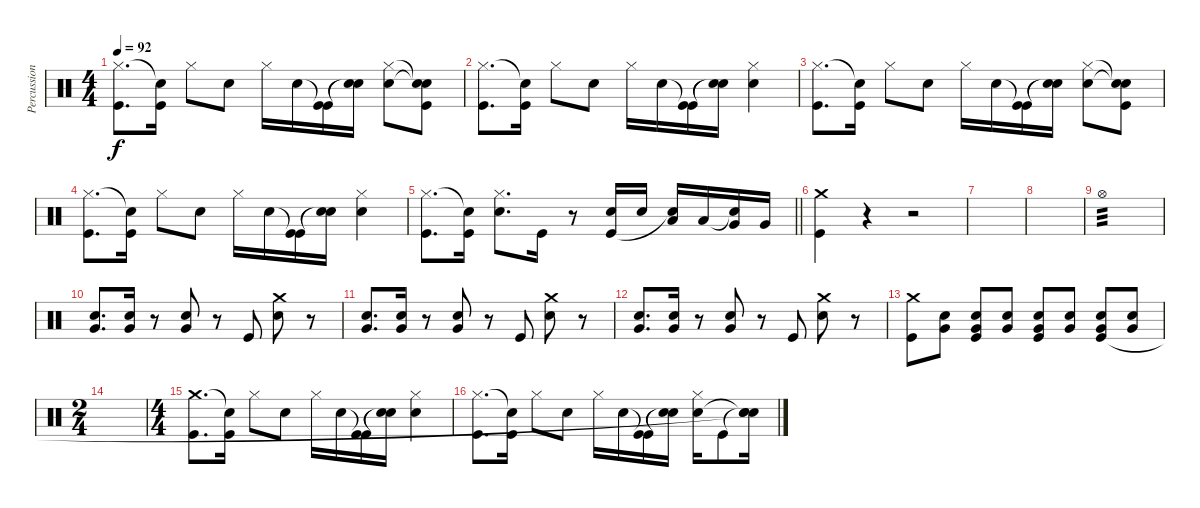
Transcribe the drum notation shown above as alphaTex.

\track ("Percussion" "Percussion") {instrument percussion}
\staff {score}
\articulation defaults
\ts (4 4)
\tempo 92
\clef neutral
\ks c
("Hi-Hat (closed)" "Kick (hit)").8{d dy f} ("Snare (hit)"{t} "Kick (hit)").16 "Hi-Hat (closed)".8 "Electric Snare (hit)".8 "Hi-Hat (closed)".16 "Electric Snare (hit)".16 ("Kick (hit)"{t} "Kick (hit)").16 ("Snare (hit)"{t} "Snare (hit)"{t}).16 ("Hi-Hat (closed)" "Electric Snare (hit)").8 ("Snare (hit)"{t} "Snare (hit)"{t} "Kick (hit)").8 |
("Hi-Hat (closed)" "Kick (hit)").8{d} ("Snare (hit)"{t} "Kick (hit)").16 "Hi-Hat (closed)".8 "Electric Snare (hit)".8 "Hi-Hat (closed)".16 "Electric Snare (hit)".16 ("Kick (hit)"{t} "Kick (hit)").16 ("Snare (hit)"{t} "Snare (hit)"{t}).16 ("Hi-Hat (closed)" "Electric Snare (hit)").4 |
("Hi-Hat (closed)" "Kick (hit)").8{d} ("Snare (hit)"{t} "Kick (hit)").16 "Hi-Hat (closed)".8 "Electric Snare (hit)".8 "Hi-Hat (closed)".16 "Electric Snare (hit)".16 ("Kick (hit)"{t} "Kick (hit)").16 ("Snare (hit)"{t} "Snare (hit)"{t}).16 ("Hi-Hat (closed)" "Electric Snare (hit)").8 ("Snare (hit)"{t} "Snare (hit)"{t} "Kick (hit)").8 |
("Hi-Hat (closed)" "Kick (hit)").8{d} ("Snare (hit)"{t} "Kick (hit)").16 "Hi-Hat (closed)".8 "Electric Snare (hit)".8 "Hi-Hat (closed)".16 "Electric Snare (hit)".16 ("Kick (hit)"{t} "Kick (hit)").16 ("Snare (hit)"{t} "Snare (hit)"{t}).16 ("Hi-Hat (closed)" "Electric Snare (hit)").4 |
\barLineRight lightlight
("Hi-Hat (closed)" "Kick (hit)").8{d} ("Snare (hit)"{t} "Kick (hit)").16 ("Hi-Hat (closed)" "Electric Snare (hit)").8{d} "Kick (hit)".16 r.8 ("Electric Snare (hit)" "Kick (hit)").16 "Electric Snare (hit)".16 ("Low Tom (hit)" "Snare (hit)"{t}).16 "Low Tom (hit)".16 ("Snare (hit)"{t} "Very Low Tom (hit)").16 "Very Low Tom (hit)".16 |
("Crash medium (hit)" "Kick (hit)").4 r.4 r.2 |
|
|
"Hi-Hat (open)".1{tp 3 volume 16} |
("Electric Snare (hit)" "Very Low Tom (hit)").8{d} ("Electric Snare (hit)" "Very Low Tom (hit)").16 r.8 ("Electric Snare (hit)" "Very Low Tom (hit)").8 r.8 "Kick (hit)".8 ("Crash medium (hit)" "Electric Snare (hit)").8 r.8 |
("Electric Snare (hit)" "Very Low Tom (hit)").8{d} ("Electric Snare (hit)" "Very Low Tom (hit)").16 r.8 ("Electric Snare (hit)" "Very Low Tom (hit)").8 r.8 "Kick (hit)".8 ("Crash medium (hit)" "Electric Snare (hit)").8 r.8 |
("Electric Snare (hit)" "Very Low Tom (hit)").8{d} ("Electric Snare (hit)" "Very Low Tom (hit)").16 r.8 ("Electric Snare (hit)" "Very Low Tom (hit)").8 r.8 "Kick (hit)".8 ("Crash medium (hit)" "Electric Snare (hit)").8 r.8 |
("Crash medium (hit)" "Kick (hit)").8 ("Electric Snare (hit)" "Very Low Tom (hit)").8 ("Electric Snare (hit)" "Very Low Tom (hit)" "Kick (hit)").8 ("Electric Snare (hit)" "Very Low Tom (hit)").8 ("Electric Snare (hit)" "Very Low Tom (hit)" "Kick (hit)").8 ("Electric Snare (hit)" "Very Low Tom (hit)").8 ("Electric Snare (hit)" "Very Low Tom (hit)" "Kick (hit)").8 ("Electric Snare (hit)" "Very Low Tom (hit)").8 |
\ts (2 4)
|
\ts (4 4)
("Crash medium (hit)" "Kick (hit)").8{d} ("Snare (hit)"{t} "Kick (hit)").16 "Hi-Hat (closed)".8 "Electric Snare (hit)".8 "Hi-Hat (closed)".16 "Electric Snare (hit)".16 ("Kick (hit)"{t} "Kick (hit)").16 ("Snare (hit)"{t} "Snare (hit)"{t}).16 ("Hi-Hat (closed)" "Electric Snare (hit)").4 |
("Hi-Hat (closed)" "Kick (hit)").8{d} ("Snare (hit)"{t} "Kick (hit)").16 "Hi-Hat (closed)".8 "Electric Snare (hit)".8 "Hi-Hat (closed)".16 "Electric Snare (hit)".16 ("Kick (hit)"{t} "Kick (hit)").16 ("Snare (hit)"{t} "Snare (hit)"{t}).16 ("Hi-Hat (closed)" "Electric Snare (hit)").16 "Kick (hit)".8 ("Snare (hit)"{t} "Snare (hit)"{t} "Snare (hit)"{t}).16
